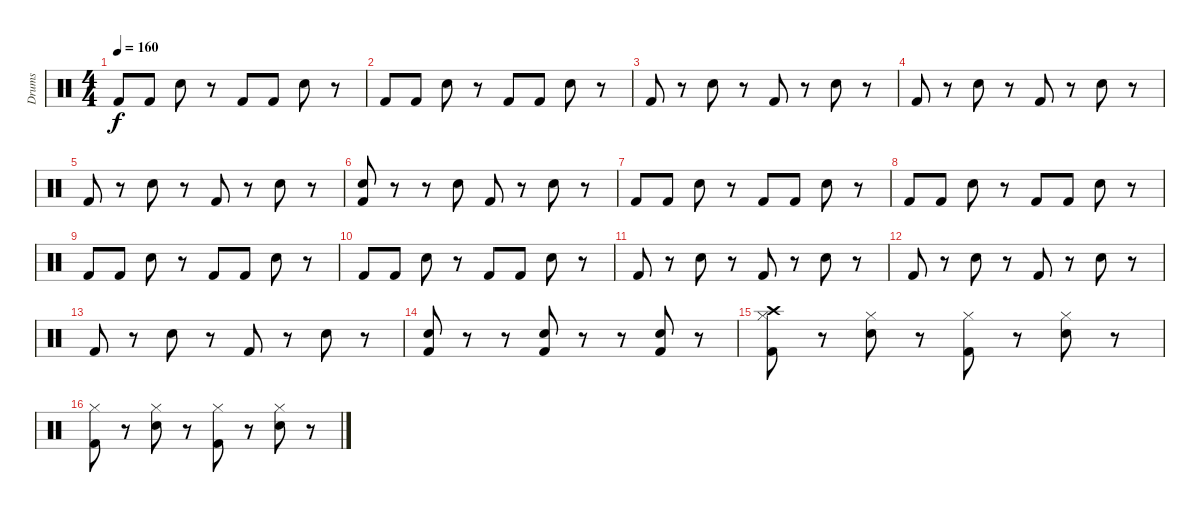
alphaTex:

\track ("Drums" "Drums") {instrument percussion}
\staff {score}
\articulation defaults
\ts (4 4)
\tempo 160
\clef neutral
\ks c "Kick (hit) 2".8{dy f} "Kick (hit) 2".8 "Electric Snare (hit)".8
r.8 "Kick (hit) 2".8 "Kick (hit) 2".8 "Electric Snare (hit)".8 r.8 |
"Kick (hit) 2".8 "Kick (hit) 2".8 "Electric Snare (hit)".8 r.8 "Kick (hit) 2".8 "Kick (hit) 2".8 "Electric Snare (hit)".8 r.8 |
"Kick (hit) 2".8 r.8 "Electric Snare (hit)".8 r.8 "Kick (hit) 2".8 r.8 "Electric Snare (hit)".8 r.8 |
"Kick (hit) 2".8 r.8 "Electric Snare (hit)".8 r.8 "Kick (hit) 2".8 r.8 "Electric Snare (hit)".8 r.8 |
"Kick (hit) 2".8 r.8 "Electric Snare (hit)".8 r.8 "Kick (hit) 2".8 r.8 "Electric Snare (hit)".8 r.8 |
("Electric Snare (hit)" "Kick (hit) 2").8 r.8 r.8 "Electric Snare (hit)".8 "Kick (hit) 2".8 r.8 "Electric Snare (hit)".8 r.8 |
"Kick (hit) 2".8 "Kick (hit) 2".8 "Electric Snare (hit)".8 r.8 "Kick (hit) 2".8 "Kick (hit) 2".8 "Electric Snare (hit)".8 r.8 |
"Kick (hit) 2".8 "Kick (hit) 2".8 "Electric Snare (hit)".8 r.8 "Kick (hit) 2".8 "Kick (hit) 2".8 "Electric Snare (hit)".8 r.8 |
"Kick (hit) 2".8 "Kick (hit) 2".8 "Electric Snare (hit)".8 r.8 "Kick (hit) 2".8 "Kick (hit) 2".8 "Electric Snare (hit)".8 r.8 |
"Kick (hit) 2".8 "Kick (hit) 2".8 "Electric Snare (hit)".8 r.8 "Kick (hit) 2".8 "Kick (hit) 2".8 "Electric Snare (hit)".8 r.8 |
"Kick (hit) 2".8 r.8 "Electric Snare (hit)".8 r.8 "Kick (hit) 2".8 r.8 "Electric Snare (hit)".8 r.8 |
"Kick (hit) 2".8 r.8 "Electric Snare (hit)".8 r.8 "Kick (hit) 2".8 r.8 "Electric Snare (hit)".8 r.8 |
"Kick (hit) 2".8 r.8 "Electric Snare (hit)".8 r.8 "Kick (hit) 2".8 r.8 "Electric Snare (hit)".8 r.8 |
("Electric Snare (hit)" "Kick (hit) 2").8 r.8 r.8 ("Electric Snare (hit)" "Kick (hit) 2").8 r.8 r.8 ("Electric Snare (hit)" "Kick (hit) 2").8 r.8 |
("Hi-Hat (closed)" "Kick (hit) 2" "Crash high (hit)").8 r.8 ("Hi-Hat (closed)" "Electric Snare (hit)").8 r.8 ("Hi-Hat (closed)" "Kick (hit) 2").8 r.8 ("Hi-Hat (closed)" "Electric Snare (hit)").8 r.8 |
("Hi-Hat (closed)" "Kick (hit) 2").8 r.8 ("Hi-Hat (closed)" "Electric Snare (hit)").8 r.8 ("Hi-Hat (closed)" "Kick (hit) 2").8 r.8 ("Hi-Hat (closed)" "Electric Snare (hit)").8 r.8
